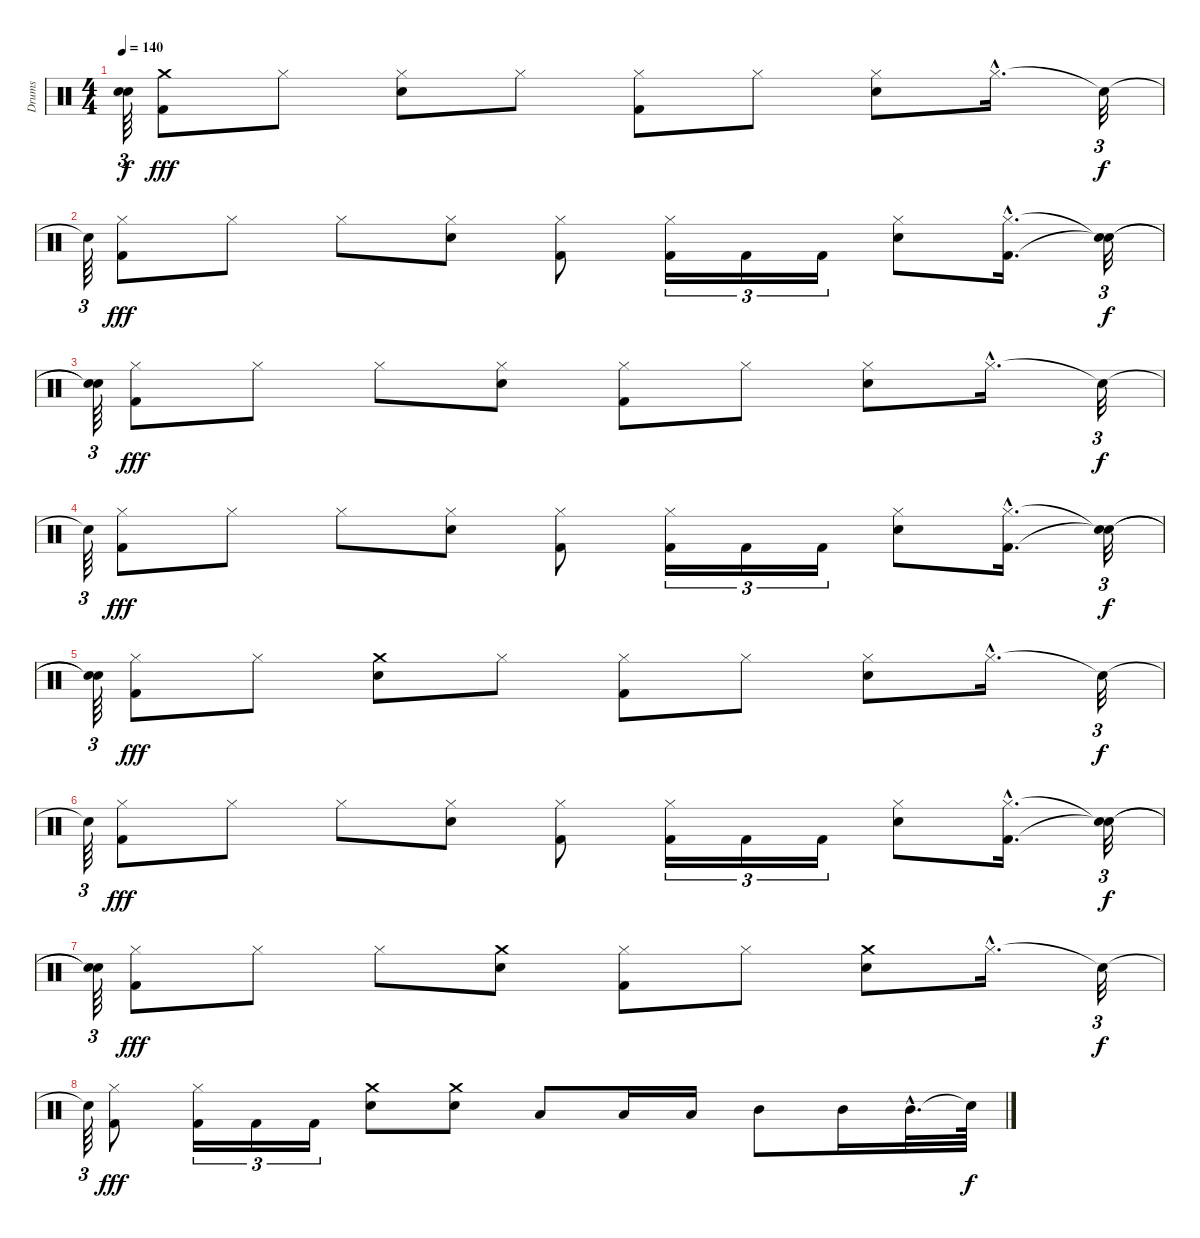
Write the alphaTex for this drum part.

\track ("Drums" "Drums") {instrument percussion}
\staff {score}
\articulation defaults
\ts (4 4)
\tempo 140
\clef neutral
\ks c
("Snare (hit)"{t} "Snare (hit)"{t}).64{tu (3 2) dy f} ("Kick (hit) 2" "Crash medium (hit)").8{dy fff} "Hi-Hat (closed)".8 ("Snare (hit) 2" "Hi-Hat (closed)").8 "Hi-Hat (closed)".8 ("Kick (hit) 2" "Hi-Hat (closed)").8 "Hi-Hat (closed)".8 ("Snare (hit) 2" "Hi-Hat (closed)").8 "Hi-Hat (closed)"{hac}.16{d} "Snare (hit)"{t}.32{tu (3 2) dy f} |
"Snare (hit)"{t}.64{tu (3 2)} ("Kick (hit) 2" "Hi-Hat (closed)").8{dy fff} "Hi-Hat (closed)".8 "Hi-Hat (closed)".8 ("Snare (hit) 2" "Hi-Hat (closed)").8 ("Kick (hit) 2" "Hi-Hat (closed)").8 ("Kick (hit) 2" "Hi-Hat (closed)").16{tu (3 2)} "Kick (hit) 2".16{tu (3 2)} "Kick (hit) 2".16{tu (3 2)} ("Snare (hit) 2" "Hi-Hat (closed)").8 ("Kick (hit) 2"{hac} "Hi-Hat (closed)"{hac}).16{d} ("Snare (hit)"{t} "Snare (hit)"{t}).32{tu (3 2) dy f} |
("Snare (hit)"{t} "Snare (hit)"{t}).64{tu (3 2)} ("Hi-Hat (closed)" "Kick (hit) 2").8{dy fff} "Hi-Hat (closed)".8 "Hi-Hat (closed)".8 ("Snare (hit) 2" "Hi-Hat (closed)").8 ("Hi-Hat (closed)" "Kick (hit) 2").8 "Hi-Hat (closed)".8 ("Snare (hit) 2" "Hi-Hat (closed)").8 "Hi-Hat (closed)"{hac}.16{d} "Snare (hit)"{t}.32{tu (3 2) dy f} |
"Snare (hit)"{t}.64{tu (3 2)} ("Kick (hit) 2" "Hi-Hat (closed)").8{dy fff} "Hi-Hat (closed)".8 "Hi-Hat (closed)".8 ("Snare (hit) 2" "Hi-Hat (closed)").8 ("Kick (hit) 2" "Hi-Hat (closed)").8 ("Kick (hit) 2" "Hi-Hat (closed)").16{tu (3 2)} "Kick (hit) 2".16{tu (3 2)} "Kick (hit) 2".16{tu (3 2)} ("Snare (hit) 2" "Hi-Hat (closed)").8 ("Kick (hit) 2"{hac} "Hi-Hat (closed)"{hac}).16{d} ("Snare (hit)"{t} "Snare (hit)"{t}).32{tu (3 2) dy f} |
("Snare (hit)"{t} "Snare (hit)"{t}).64{tu (3 2)} ("Hi-Hat (closed)" "Kick (hit) 2").8{dy fff} "Hi-Hat (closed)".8 ("Crash medium (hit)" "Snare (hit) 2").8 "Hi-Hat (closed)".8 ("Hi-Hat (closed)" "Kick (hit) 2").8 "Hi-Hat (closed)".8 ("Snare (hit) 2" "Hi-Hat (closed)").8 "Hi-Hat (closed)"{hac}.16{d} "Snare (hit)"{t}.32{tu (3 2) dy f} |
"Snare (hit)"{t}.64{tu (3 2)} ("Kick (hit) 2" "Hi-Hat (closed)").8{dy fff} "Hi-Hat (closed)".8 "Hi-Hat (closed)".8 ("Snare (hit) 2" "Hi-Hat (closed)").8 ("Kick (hit) 2" "Hi-Hat (closed)").8 ("Kick (hit) 2" "Hi-Hat (closed)").16{tu (3 2)} "Kick (hit) 2".16{tu (3 2)} "Kick (hit) 2".16{tu (3 2)} ("Snare (hit) 2" "Hi-Hat (closed)").8 ("Kick (hit) 2"{hac} "Hi-Hat (closed)"{hac}).16{d} ("Snare (hit)"{t} "Snare (hit)"{t}).32{tu (3 2) dy f} |
("Snare (hit)"{t} "Snare (hit)"{t}).64{tu (3 2)} ("Kick (hit) 2" "Hi-Hat (closed)").8{dy fff} "Hi-Hat (closed)".8 "Hi-Hat (closed)".8 ("Crash medium (hit)" "Snare (hit) 2").8 ("Kick (hit) 2" "Hi-Hat (closed)").8 "Hi-Hat (closed)".8 ("Crash medium (hit)" "Snare (hit) 2").8 "Hi-Hat (closed)"{hac}.16{d} "Snare (hit)"{t}.32{tu (3 2) dy f} |
"Snare (hit)"{t}.64{tu (3 2)} ("Hi-Hat (closed)" "Kick (hit) 2").8{dy fff} ("Hi-Hat (closed)" "Kick (hit) 2").16{tu (3 2)} "Kick (hit) 2".16{tu (3 2)} "Kick (hit) 2".16{tu (3 2)} ("Snare (hit) 2" "Crash medium (hit)").8 ("Snare (hit) 2" "Crash medium (hit)").8 "Low Tom (hit)".8 "Low Tom (hit)".16 "Low Tom (hit)".16 "Mid Tom (hit)".8 "Mid Tom (hit)".16 "Mid Tom (hit)"{hac}.32{d} "Snare (hit)"{t}.64{dy f}
